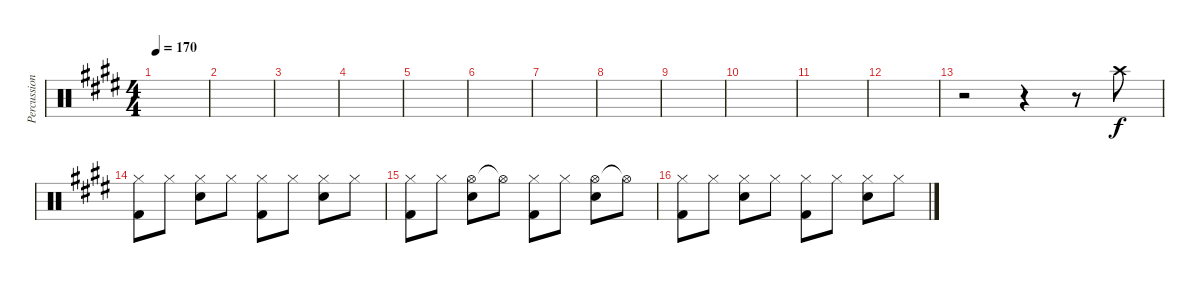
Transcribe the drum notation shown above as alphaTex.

\track ("Percussion" "Percussion") {instrument percussion}
\staff {score}
\articulation defaults
\ts (4 4)
\tempo 170
\clef neutral
\ks e
|
|
|
|
|
|
|
|
|
|
|
|
r.2 r.4 r.8 "Crash high (hit)".8 |
("Hi-Hat (closed)" "Kick (hit) 2").8 "Hi-Hat (closed)".8 ("Hi-Hat (closed)" "Snare (hit) 2").8 "Hi-Hat (closed)".8 ("Hi-Hat (closed)" "Kick (hit) 2").8 "Hi-Hat (closed)".8 ("Hi-Hat (closed)" "Snare (hit) 2").8 "Hi-Hat (closed)".8 |
("Hi-Hat (closed)" "Kick (hit) 2").8 "Hi-Hat (closed)".8 ("Hi-Hat (open)" "Snare (hit) 2").8 "Hi-Hat (open)"{t}.8 ("Hi-Hat (closed)" "Kick (hit) 2").8 "Hi-Hat (closed)".8 ("Hi-Hat (open)" "Snare (hit) 2").8 "Hi-Hat (open)"{t}.8 |
("Hi-Hat (closed)" "Kick (hit) 2").8 "Hi-Hat (closed)".8 ("Hi-Hat (closed)" "Snare (hit) 2").8 "Hi-Hat (closed)".8 ("Hi-Hat (closed)" "Kick (hit) 2").8 "Hi-Hat (closed)".8 ("Hi-Hat (closed)" "Snare (hit) 2").8 "Hi-Hat (closed)".8
